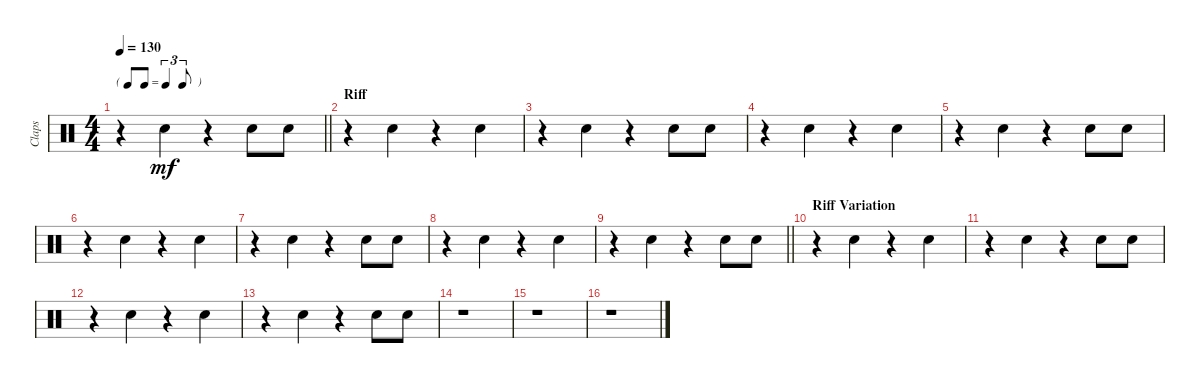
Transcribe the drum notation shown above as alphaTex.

\track ("Claps" "Claps") {instrument percussion}
\staff {score}
\articulation defaults
\ts (4 4)
\tf triplet8th
\tempo 130
\clef neutral
\barLineRight lightlight
\ks c
r.4{dy mf} "Hand Clap (hit)".4 r.4 "Hand Clap (hit)".8 "Hand Clap (hit)".8 |
\section ("" "Riff")
r.4 "Hand Clap (hit)".4 r.4 "Hand Clap (hit)".4 |
r.4 "Hand Clap (hit)".4 r.4 "Hand Clap (hit)".8 "Hand Clap (hit)".8 |
r.4 "Hand Clap (hit)".4 r.4 "Hand Clap (hit)".4 |
r.4 "Hand Clap (hit)".4 r.4 "Hand Clap (hit)".8 "Hand Clap (hit)".8 |
r.4 "Hand Clap (hit)".4 r.4 "Hand Clap (hit)".4 |
r.4 "Hand Clap (hit)".4 r.4 "Hand Clap (hit)".8 "Hand Clap (hit)".8 |
r.4 "Hand Clap (hit)".4 r.4 "Hand Clap (hit)".4 |
\barLineRight lightlight
r.4 "Hand Clap (hit)".4 r.4 "Hand Clap (hit)".8 "Hand Clap (hit)".8 |
\section ("" "Riff Variation")
r.4 "Hand Clap (hit)".4 r.4 "Hand Clap (hit)".4 |
r.4 "Hand Clap (hit)".4 r.4 "Hand Clap (hit)".8 "Hand Clap (hit)".8 |
r.4 "Hand Clap (hit)".4 r.4 "Hand Clap (hit)".4 |
r.4 "Hand Clap (hit)".4 r.4 "Hand Clap (hit)".8 "Hand Clap (hit)".8 |
r.1 |
r.1 |
r.1
